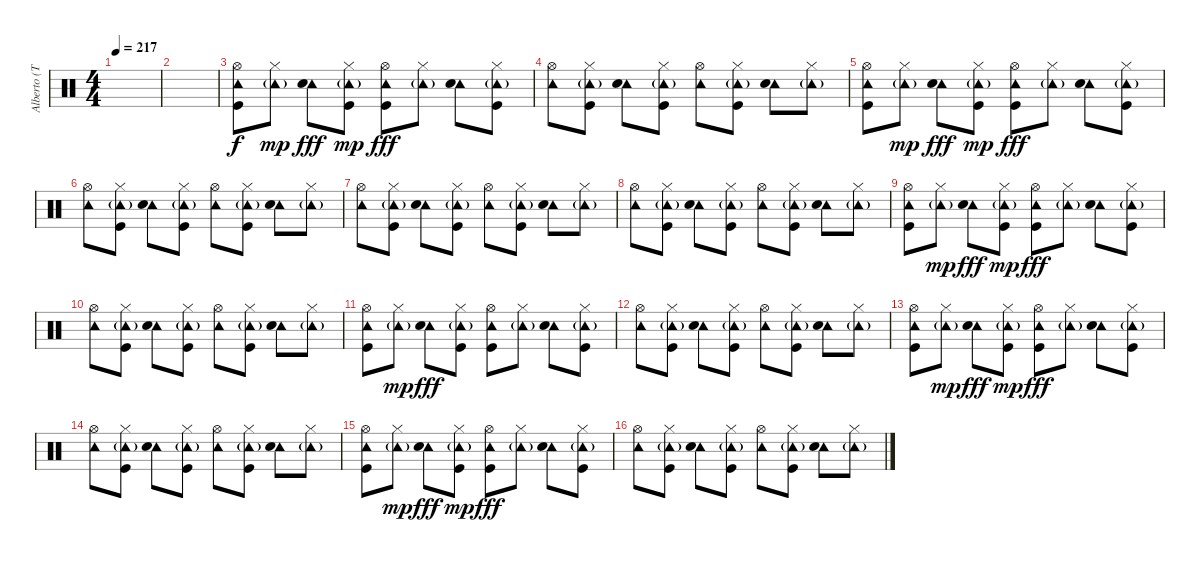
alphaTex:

\track ("Alberto (Toshi)" "Alberto (T") {instrument percussion}
\staff {score}
\articulation defaults
\ts (4 4)
\tempo 217
\tempo 70
\tempo 217
\clef neutral
\ks c
|
|
("Tambourine (hit)" "Hi-Hat (open)" "Kick (hit)").8 ("Tambourine (hit)"{g} "Hi-Hat (closed)").8{dy mp} ("Tambourine (hit)" "Electric Snare (hit)").8{dy fff} ("Tambourine (hit)"{g} "Hi-Hat (closed)" "Kick (hit)").8{dy mp} ("Tambourine (hit)" "Hi-Hat (open)" "Kick (hit)").8{dy fff} ("Tambourine (hit)"{g} "Hi-Hat (closed)").8 ("Tambourine (hit)" "Electric Snare (hit)").8 ("Tambourine (hit)"{g} "Hi-Hat (closed)" "Kick (hit)").8 |
("Tambourine (hit)" "Hi-Hat (open)").8 ("Tambourine (hit)"{g} "Hi-Hat (closed)" "Kick (hit)").8 ("Tambourine (hit)" "Electric Snare (hit)").8 ("Tambourine (hit)"{g} "Hi-Hat (closed)" "Kick (hit)").8 ("Tambourine (hit)" "Hi-Hat (open)").8 ("Tambourine (hit)"{g} "Hi-Hat (closed)" "Kick (hit)").8 ("Tambourine (hit)" "Electric Snare (hit)").8 ("Tambourine (hit)"{g} "Hi-Hat (closed)").8 |
("Tambourine (hit)" "Hi-Hat (open)" "Kick (hit)").8 ("Tambourine (hit)"{g} "Hi-Hat (closed)").8{dy mp} ("Tambourine (hit)" "Electric Snare (hit)").8{dy fff} ("Tambourine (hit)"{g} "Hi-Hat (closed)" "Kick (hit)").8{dy mp} ("Tambourine (hit)" "Hi-Hat (open)" "Kick (hit)").8{dy fff} ("Tambourine (hit)"{g} "Hi-Hat (closed)").8 ("Tambourine (hit)" "Electric Snare (hit)").8 ("Tambourine (hit)"{g} "Hi-Hat (closed)" "Kick (hit)").8 |
("Tambourine (hit)" "Hi-Hat (open)").8 ("Tambourine (hit)"{g} "Hi-Hat (closed)" "Kick (hit)").8 ("Tambourine (hit)" "Electric Snare (hit)").8 ("Tambourine (hit)"{g} "Hi-Hat (closed)" "Kick (hit)").8 ("Tambourine (hit)" "Hi-Hat (open)").8 ("Tambourine (hit)"{g} "Hi-Hat (closed)" "Kick (hit)").8 ("Tambourine (hit)" "Electric Snare (hit)").8 ("Tambourine (hit)"{g} "Hi-Hat (closed)").8 |
("Tambourine (hit)" "Hi-Hat (open)").8 ("Tambourine (hit)"{g} "Hi-Hat (closed)" "Kick (hit)").8 ("Tambourine (hit)" "Electric Snare (hit)").8 ("Tambourine (hit)"{g} "Hi-Hat (closed)" "Kick (hit)").8 ("Tambourine (hit)" "Hi-Hat (open)").8 ("Tambourine (hit)"{g} "Hi-Hat (closed)" "Kick (hit)").8 ("Tambourine (hit)" "Electric Snare (hit)").8 ("Tambourine (hit)"{g} "Hi-Hat (closed)").8 |
("Tambourine (hit)" "Hi-Hat (open)").8 ("Tambourine (hit)"{g} "Hi-Hat (closed)" "Kick (hit)").8 ("Tambourine (hit)" "Electric Snare (hit)").8 ("Tambourine (hit)"{g} "Hi-Hat (closed)" "Kick (hit)").8 ("Tambourine (hit)" "Hi-Hat (open)").8 ("Tambourine (hit)"{g} "Hi-Hat (closed)" "Kick (hit)").8 ("Tambourine (hit)" "Electric Snare (hit)").8 ("Tambourine (hit)"{g} "Hi-Hat (closed)").8 |
("Tambourine (hit)" "Hi-Hat (open)" "Kick (hit)").8 ("Tambourine (hit)"{g} "Hi-Hat (closed)").8{dy mp} ("Tambourine (hit)" "Electric Snare (hit)").8{dy fff} ("Tambourine (hit)"{g} "Hi-Hat (closed)" "Kick (hit)").8{dy mp} ("Tambourine (hit)" "Hi-Hat (open)" "Kick (hit)").8{dy fff} ("Tambourine (hit)"{g} "Hi-Hat (closed)").8 ("Tambourine (hit)" "Electric Snare (hit)").8 ("Tambourine (hit)"{g} "Hi-Hat (closed)" "Kick (hit)").8 |
("Tambourine (hit)" "Hi-Hat (open)").8 ("Tambourine (hit)"{g} "Hi-Hat (closed)" "Kick (hit)").8 ("Tambourine (hit)" "Electric Snare (hit)").8 ("Tambourine (hit)"{g} "Hi-Hat (closed)" "Kick (hit)").8 ("Tambourine (hit)" "Hi-Hat (open)").8 ("Tambourine (hit)"{g} "Hi-Hat (closed)" "Kick (hit)").8 ("Tambourine (hit)" "Electric Snare (hit)").8 ("Tambourine (hit)"{g} "Hi-Hat (closed)").8 |
("Tambourine (hit)" "Hi-Hat (open)" "Kick (hit)").8 ("Tambourine (hit)"{g} "Hi-Hat (closed)").8{dy mp} ("Tambourine (hit)" "Electric Snare (hit)").8{dy fff} ("Tambourine (hit)"{g} "Hi-Hat (closed)" "Kick (hit)").8 ("Tambourine (hit)" "Hi-Hat (open)" "Kick (hit)").8 ("Tambourine (hit)"{g} "Hi-Hat (closed)").8 ("Tambourine (hit)" "Electric Snare (hit)").8 ("Tambourine (hit)"{g} "Hi-Hat (closed)" "Kick (hit)").8 |
("Tambourine (hit)" "Hi-Hat (open)").8 ("Tambourine (hit)"{g} "Hi-Hat (closed)" "Kick (hit)").8 ("Tambourine (hit)" "Electric Snare (hit)").8 ("Tambourine (hit)"{g} "Hi-Hat (closed)" "Kick (hit)").8 ("Tambourine (hit)" "Hi-Hat (open)").8 ("Tambourine (hit)"{g} "Hi-Hat (closed)" "Kick (hit)").8 ("Tambourine (hit)" "Electric Snare (hit)").8 ("Tambourine (hit)"{g} "Hi-Hat (closed)").8 |
("Tambourine (hit)" "Hi-Hat (open)" "Kick (hit)").8 ("Tambourine (hit)"{g} "Hi-Hat (closed)").8{dy mp} ("Tambourine (hit)" "Electric Snare (hit)").8{dy fff} ("Tambourine (hit)"{g} "Hi-Hat (closed)" "Kick (hit)").8{dy mp} ("Tambourine (hit)" "Hi-Hat (open)" "Kick (hit)").8{dy fff} ("Tambourine (hit)"{g} "Hi-Hat (closed)").8 ("Tambourine (hit)" "Electric Snare (hit)").8 ("Tambourine (hit)"{g} "Hi-Hat (closed)" "Kick (hit)").8 |
("Tambourine (hit)" "Hi-Hat (open)").8 ("Tambourine (hit)"{g} "Hi-Hat (closed)" "Kick (hit)").8 ("Tambourine (hit)" "Electric Snare (hit)").8 ("Tambourine (hit)"{g} "Hi-Hat (closed)" "Kick (hit)").8 ("Tambourine (hit)" "Hi-Hat (open)").8 ("Tambourine (hit)"{g} "Hi-Hat (closed)" "Kick (hit)").8 ("Tambourine (hit)" "Electric Snare (hit)").8 ("Tambourine (hit)"{g} "Hi-Hat (closed)").8 |
("Tambourine (hit)" "Hi-Hat (open)" "Kick (hit)").8 ("Tambourine (hit)"{g} "Hi-Hat (closed)").8{dy mp} ("Tambourine (hit)" "Electric Snare (hit)").8{dy fff} ("Tambourine (hit)"{g} "Hi-Hat (closed)" "Kick (hit)").8{dy mp} ("Tambourine (hit)" "Hi-Hat (open)" "Kick (hit)").8{dy fff} ("Tambourine (hit)"{g} "Hi-Hat (closed)").8 ("Tambourine (hit)" "Electric Snare (hit)").8 ("Tambourine (hit)"{g} "Hi-Hat (closed)" "Kick (hit)").8 |
("Tambourine (hit)" "Hi-Hat (open)").8 ("Tambourine (hit)"{g} "Hi-Hat (closed)" "Kick (hit)").8 ("Tambourine (hit)" "Electric Snare (hit)").8 ("Tambourine (hit)"{g} "Hi-Hat (closed)" "Kick (hit)").8 ("Tambourine (hit)" "Hi-Hat (open)").8 ("Tambourine (hit)"{g} "Hi-Hat (closed)" "Kick (hit)").8 ("Tambourine (hit)" "Electric Snare (hit)").8 ("Tambourine (hit)"{g} "Hi-Hat (closed)").8
